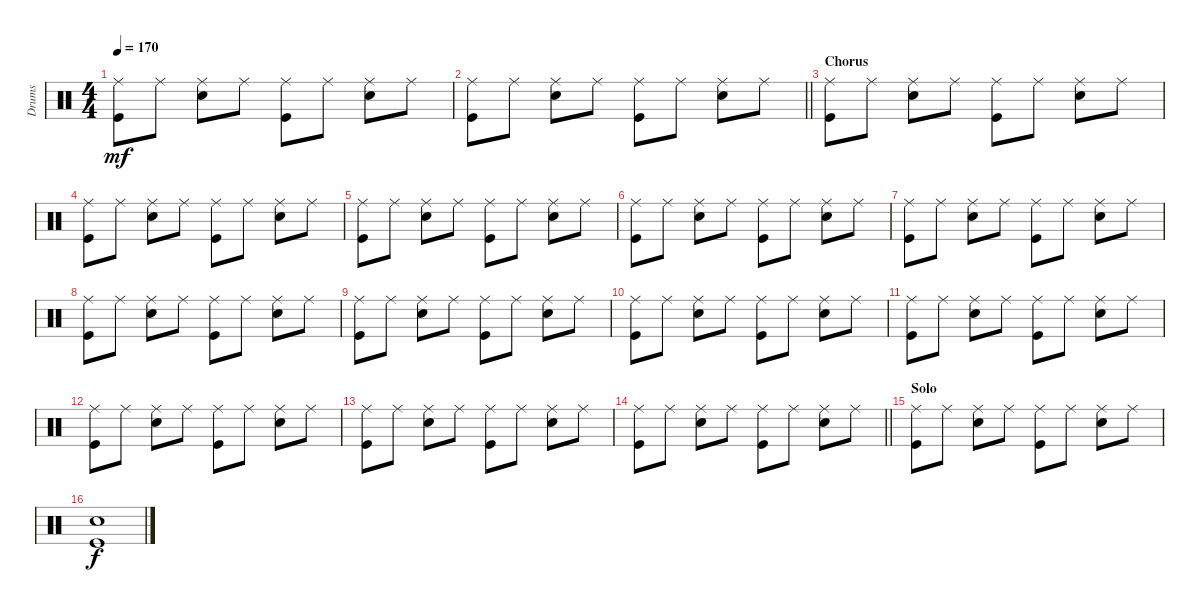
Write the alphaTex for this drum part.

\track ("Drums" "Drums") {instrument percussion}
\staff {score}
\articulation defaults
\ts (4 4)
\tempo 170
\clef neutral
\ks c
("Ride (middle)" "Kick (hit)").8{dy mf} "Ride (middle)".8 ("Ride (middle)" "Snare (hit) 2").8 "Ride (middle)".8 ("Ride (middle)" "Kick (hit)").8 "Ride (middle)".8 ("Ride (middle)" "Snare (hit) 2").8 "Ride (middle)".8 |
\barLineRight lightlight
("Ride (middle)" "Kick (hit)").8 "Ride (middle)".8 ("Ride (middle)" "Snare (hit) 2").8 "Ride (middle)".8 ("Ride (middle)" "Kick (hit)").8 "Ride (middle)".8 ("Ride (middle)" "Snare (hit) 2").8 "Ride (middle)".8 |
\section ("" "Chorus")
("Ride (middle)" "Kick (hit)").8 "Ride (middle)".8 ("Ride (middle)" "Snare (hit) 2").8 "Ride (middle)".8 ("Ride (middle)" "Kick (hit)").8 "Ride (middle)".8 ("Ride (middle)" "Snare (hit) 2").8 "Ride (middle)".8 |
("Ride (middle)" "Kick (hit)").8 "Ride (middle)".8 ("Ride (middle)" "Snare (hit) 2").8 "Ride (middle)".8 ("Ride (middle)" "Kick (hit)").8 "Ride (middle)".8 ("Ride (middle)" "Snare (hit) 2").8 "Ride (middle)".8 |
("Ride (middle)" "Kick (hit)").8 "Ride (middle)".8 ("Ride (middle)" "Snare (hit) 2").8 "Ride (middle)".8 ("Ride (middle)" "Kick (hit)").8 "Ride (middle)".8 ("Ride (middle)" "Snare (hit) 2").8 "Ride (middle)".8 |
("Ride (middle)" "Kick (hit)").8 "Ride (middle)".8 ("Ride (middle)" "Snare (hit) 2").8 "Ride (middle)".8 ("Ride (middle)" "Kick (hit)").8 "Ride (middle)".8 ("Ride (middle)" "Snare (hit) 2").8 "Ride (middle)".8 |
("Ride (middle)" "Kick (hit)").8 "Ride (middle)".8 ("Ride (middle)" "Snare (hit) 2").8 "Ride (middle)".8 ("Ride (middle)" "Kick (hit)").8 "Ride (middle)".8 ("Ride (middle)" "Snare (hit) 2").8 "Ride (middle)".8 |
("Ride (middle)" "Kick (hit)").8 "Ride (middle)".8 ("Ride (middle)" "Snare (hit) 2").8 "Ride (middle)".8 ("Ride (middle)" "Kick (hit)").8 "Ride (middle)".8 ("Ride (middle)" "Snare (hit) 2").8 "Ride (middle)".8 |
("Ride (middle)" "Kick (hit)").8 "Ride (middle)".8 ("Ride (middle)" "Snare (hit) 2").8 "Ride (middle)".8 ("Ride (middle)" "Kick (hit)").8 "Ride (middle)".8 ("Ride (middle)" "Snare (hit) 2").8 "Ride (middle)".8 |
("Ride (middle)" "Kick (hit)").8 "Ride (middle)".8 ("Ride (middle)" "Snare (hit) 2").8 "Ride (middle)".8 ("Ride (middle)" "Kick (hit)").8 "Ride (middle)".8 ("Ride (middle)" "Snare (hit) 2").8 "Ride (middle)".8 |
("Ride (middle)" "Kick (hit)").8 "Ride (middle)".8 ("Ride (middle)" "Snare (hit) 2").8 "Ride (middle)".8 ("Ride (middle)" "Kick (hit)").8 "Ride (middle)".8 ("Ride (middle)" "Snare (hit) 2").8 "Ride (middle)".8 |
("Ride (middle)" "Kick (hit)").8 "Ride (middle)".8 ("Ride (middle)" "Snare (hit) 2").8 "Ride (middle)".8 ("Ride (middle)" "Kick (hit)").8 "Ride (middle)".8 ("Ride (middle)" "Snare (hit) 2").8 "Ride (middle)".8 |
("Ride (middle)" "Kick (hit)").8 "Ride (middle)".8 ("Ride (middle)" "Snare (hit) 2").8 "Ride (middle)".8 ("Ride (middle)" "Kick (hit)").8 "Ride (middle)".8 ("Ride (middle)" "Snare (hit) 2").8 "Ride (middle)".8 |
\barLineRight lightlight
("Ride (middle)" "Kick (hit)").8 "Ride (middle)".8 ("Ride (middle)" "Snare (hit) 2").8 "Ride (middle)".8 ("Ride (middle)" "Kick (hit)").8 "Ride (middle)".8 ("Ride (middle)" "Snare (hit) 2").8 "Ride (middle)".8 |
\section ("" "Solo")
("Ride (middle)" "Kick (hit)").8 "Ride (middle)".8 ("Ride (middle)" "Snare (hit) 2").8 "Ride (middle)".8 ("Ride (middle)" "Kick (hit)").8 "Ride (middle)".8 ("Ride (middle)" "Snare (hit) 2").8 "Ride (middle)".8 |
("Snare (hit) 2" "Kick (hit)").1{dy f}
